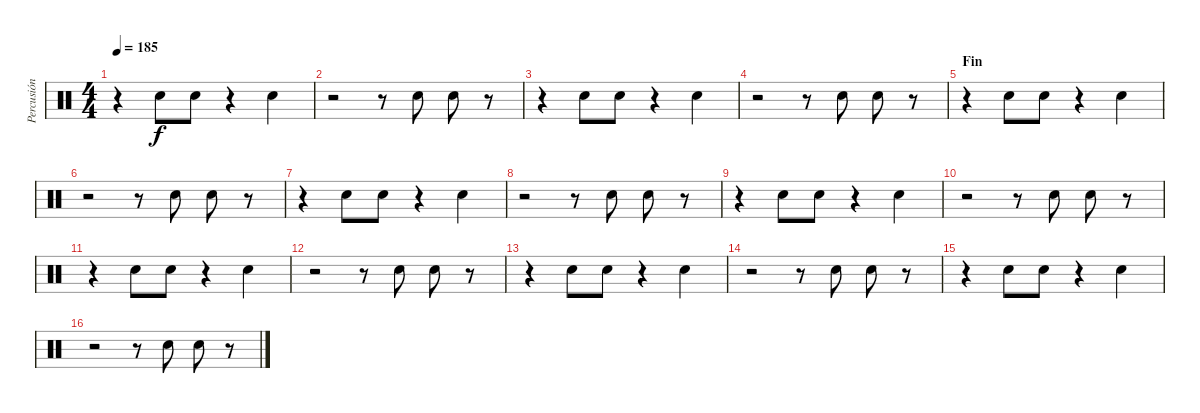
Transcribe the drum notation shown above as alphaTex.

\track ("Percusión" "Percusión") {instrument percussion}
\staff {score}
\articulation defaults
\ts (4 4)
\tempo 185
\clef neutral
\ks c
r.4{dy f} "Hand Clap (hit)".8 "Hand Clap (hit)".8 r.4 "Hand Clap (hit)".4 |
r.2 r.8 "Hand Clap (hit)".8 "Hand Clap (hit)".8 r.8 |
r.4 "Hand Clap (hit)".8 "Hand Clap (hit)".8 r.4 "Hand Clap (hit)".4 |
r.2 r.8 "Hand Clap (hit)".8 "Hand Clap (hit)".8 r.8 |
\section ("" "Fin")
r.4 "Hand Clap (hit)".8 "Hand Clap (hit)".8 r.4 "Hand Clap (hit)".4 |
r.2 r.8 "Hand Clap (hit)".8 "Hand Clap (hit)".8 r.8 |
r.4 "Hand Clap (hit)".8 "Hand Clap (hit)".8 r.4 "Hand Clap (hit)".4 |
r.2 r.8 "Hand Clap (hit)".8 "Hand Clap (hit)".8 r.8 |
r.4 "Hand Clap (hit)".8 "Hand Clap (hit)".8 r.4 "Hand Clap (hit)".4 |
r.2 r.8 "Hand Clap (hit)".8 "Hand Clap (hit)".8 r.8 |
r.4 "Hand Clap (hit)".8 "Hand Clap (hit)".8 r.4 "Hand Clap (hit)".4 |
r.2 r.8 "Hand Clap (hit)".8 "Hand Clap (hit)".8 r.8 |
r.4 "Hand Clap (hit)".8 "Hand Clap (hit)".8 r.4 "Hand Clap (hit)".4 |
r.2 r.8 "Hand Clap (hit)".8 "Hand Clap (hit)".8 r.8 |
r.4 "Hand Clap (hit)".8 "Hand Clap (hit)".8 r.4 "Hand Clap (hit)".4 |
r.2 r.8 "Hand Clap (hit)".8 "Hand Clap (hit)".8 r.8
